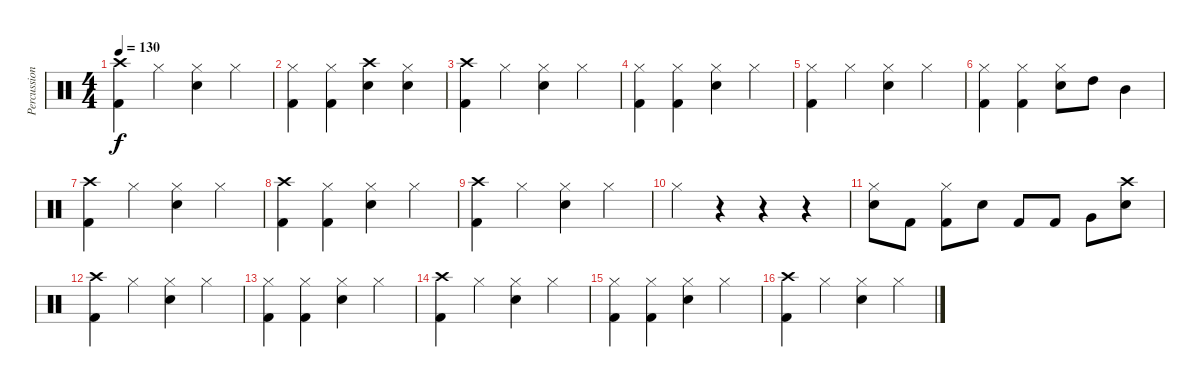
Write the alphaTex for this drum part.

\track ("Percussion" "Percussion") {instrument percussion}
\staff {score}
\articulation defaults
\ts (4 4)
\tempo 130
\clef neutral
\ks c
("Crash high (hit)" "Kick (hit) 2").4{dy f} "Hi-Hat (closed)".4 ("Snare (hit) 2" "Hi-Hat (closed)").4 "Hi-Hat (closed)".4 |
("Hi-Hat (closed)" "Kick (hit) 2").4 ("Hi-Hat (closed)" "Kick (hit) 2").4 ("Crash high (hit)" "Snare (hit) 2").4 ("Snare (hit) 2" "Hi-Hat (closed)").4 |
("Crash high (hit)" "Kick (hit) 2").4 "Hi-Hat (closed)".4 ("Snare (hit) 2" "Hi-Hat (closed)").4 "Hi-Hat (closed)".4 |
("Hi-Hat (closed)" "Kick (hit) 2").4 ("Hi-Hat (closed)" "Kick (hit) 2").4 ("Hi-Hat (closed)" "Snare (hit) 2").4 "Hi-Hat (closed)".4 |
("Hi-Hat (closed)" "Kick (hit) 2").4 "Hi-Hat (closed)".4 ("Snare (hit) 2" "Hi-Hat (closed)").4 "Hi-Hat (closed)".4 |
("Hi-Hat (closed)" "Kick (hit) 2").4 ("Hi-Hat (closed)" "Kick (hit) 2").4 ("Hi-Hat (closed)" "Snare (hit) 2").8 "High Tom (hit)".8 "Mid Tom (hit)".4 |
("Crash high (hit)" "Kick (hit) 2").4 "Hi-Hat (closed)".4 ("Snare (hit) 2" "Hi-Hat (closed)").4 "Hi-Hat (closed)".4 |
("Crash high (hit)" "Kick (hit) 2").4 ("Hi-Hat (closed)" "Kick (hit) 2").4 ("Hi-Hat (closed)" "Snare (hit) 2").4 "Hi-Hat (closed)".4 |
("Crash high (hit)" "Kick (hit) 2").4 "Hi-Hat (closed)".4 ("Snare (hit) 2" "Hi-Hat (closed)").4 "Hi-Hat (closed)".4 |
"Hi-Hat (closed)".4 r.4 r.4 r.4 |
("Snare (hit) 2" "Hi-Hat (closed)").8 "Kick (hit) 2".8 ("Hi-Hat (closed)" "Kick (hit) 2").8 "Snare (hit) 2".8 "Kick (hit) 2".8 "Kick (hit) 2".8 "Very Low Tom (hit)".8 ("Snare (hit) 2" "Crash high (hit)").8 |
("Crash high (hit)" "Kick (hit) 2").4 "Hi-Hat (closed)".4 ("Snare (hit) 2" "Hi-Hat (closed)").4 "Hi-Hat (closed)".4 |
("Hi-Hat (closed)" "Kick (hit) 2").4 ("Hi-Hat (closed)" "Kick (hit) 2").4 ("Hi-Hat (closed)" "Snare (hit) 2").4 "Hi-Hat (closed)".4 |
("Crash high (hit)" "Kick (hit) 2").4 "Hi-Hat (closed)".4 ("Snare (hit) 2" "Hi-Hat (closed)").4 "Hi-Hat (closed)".4 |
("Hi-Hat (closed)" "Kick (hit) 2").4 ("Hi-Hat (closed)" "Kick (hit) 2").4 ("Hi-Hat (closed)" "Snare (hit) 2").4 "Hi-Hat (closed)".4 |
("Crash high (hit)" "Kick (hit) 2").4 "Hi-Hat (closed)".4 ("Snare (hit) 2" "Hi-Hat (closed)").4 "Hi-Hat (closed)".4
